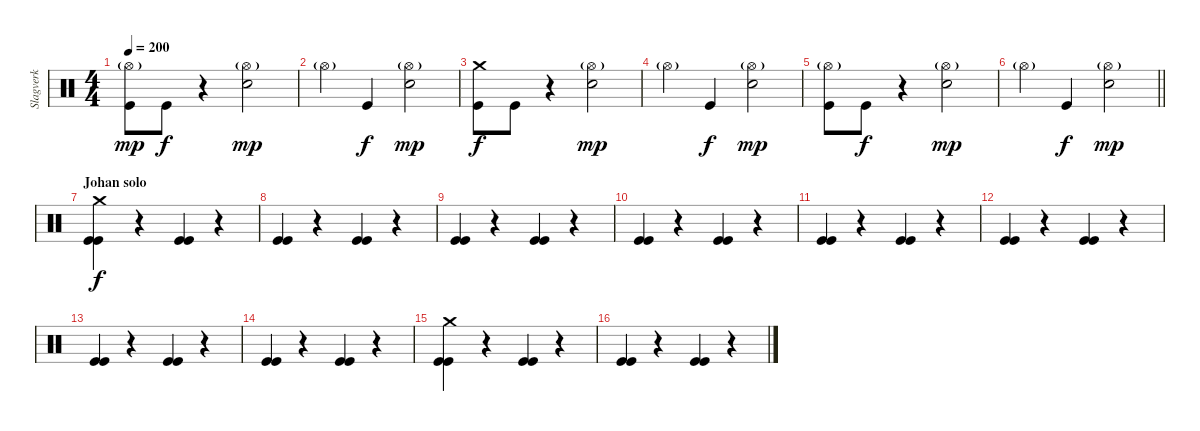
\track ("Slagverk" "Slagverk") {instrument percussion}
\staff {score}
\articulation defaults
\ts (4 4)
\tempo 200
\clef neutral
\ks c
("Hi-Hat (open)"{g} "Kick (hit)").8{dy mp} "Kick (hit)".8{dy f} r.4 ("Hi-Hat (open)"{g} "Snare (hit) 2").2{dy mp} |
"Hi-Hat (open)"{g}.4 "Kick (hit)".4{dy f} ("Hi-Hat (open)"{g} "Snare (hit) 2").2{dy mp} |
("Crash medium (hit)" "Kick (hit)").8{dy f} "Kick (hit)".8 r.4 ("Hi-Hat (open)"{g} "Snare (hit) 2").2{dy mp} |
"Hi-Hat (open)"{g}.4 "Kick (hit)".4{dy f} ("Hi-Hat (open)"{g} "Snare (hit) 2").2{dy mp} |
("Hi-Hat (open)"{g} "Kick (hit)").8 "Kick (hit)".8{dy f} r.4 ("Hi-Hat (open)"{g} "Snare (hit) 2").2{dy mp} |
\barLineRight lightlight "Hi-Hat (open)"{g}.4 "Kick (hit)".4{dy f}
("Hi-Hat (open)"{g} "Snare (hit) 2").2{dy mp} |
\section ("" "Johan solo")
("Crash medium (hit)" "Kick (hit)" "Kick (hit)").4{dy f} r.4 ("Kick (hit)" "Kick (hit)").4 r.4 |
("Kick (hit)" "Kick (hit)").4 r.4 ("Kick (hit)" "Kick (hit)").4 r.4 |
("Kick (hit)" "Kick (hit)").4 r.4 ("Kick (hit)" "Kick (hit)").4 r.4 |
("Kick (hit)" "Kick (hit)").4 r.4 ("Kick (hit)" "Kick (hit)").4 r.4 |
("Kick (hit)" "Kick (hit)").4 r.4 ("Kick (hit)" "Kick (hit)").4 r.4 |
("Kick (hit)" "Kick (hit)").4 r.4 ("Kick (hit)" "Kick (hit)").4 r.4 |
("Kick (hit)" "Kick (hit)").4 r.4 ("Kick (hit)" "Kick (hit)").4 r.4 |
("Kick (hit)" "Kick (hit)").4 r.4 ("Kick (hit)" "Kick (hit)").4 r.4 |
("Crash medium (hit)" "Kick (hit)" "Kick (hit)").4 r.4 ("Kick (hit)" "Kick (hit)").4 r.4 |
("Kick (hit)" "Kick (hit)").4 r.4 ("Kick (hit)" "Kick (hit)").4 r.4
